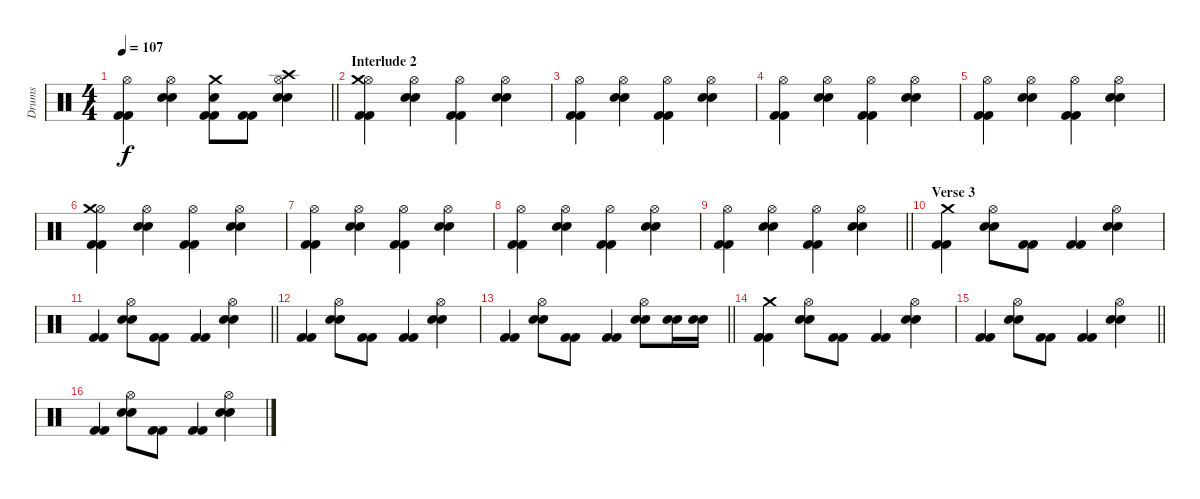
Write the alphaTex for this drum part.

\track ("Drums" "Drums") {instrument percussion}
\staff {score}
\articulation defaults
\ts (4 4)
\tempo 107
\clef neutral
\barLineRight lightlight
\ks c
("Kick (hit) 2" "Kick (hit) 2" "Hi-Hat (open)").4{dy f} ("Snare (hit) 2" "Snare (hit) 2" "Hi-Hat (open)").4 ("Kick (hit) 2" "Kick (hit) 2" "Crash medium (hit)" "Snare (hit) 2").8 ("Kick (hit) 2" "Kick (hit) 2").8 ("Snare (hit) 2" "Snare (hit) 2" "Hi-Hat (open)" "Crash high (hit)").4 |
\section ("" "Interlude 2")
("Kick (hit) 2" "Kick (hit) 2" "Hi-Hat (open)" "Crash medium (hit)").4 ("Snare (hit) 2" "Snare (hit) 2" "Hi-Hat (open)").4 ("Kick (hit) 2" "Kick (hit) 2" "Hi-Hat (open)").4 ("Snare (hit) 2" "Snare (hit) 2" "Hi-Hat (open)").4 |
("Kick (hit) 2" "Kick (hit) 2" "Hi-Hat (open)").4 ("Snare (hit) 2" "Snare (hit) 2" "Hi-Hat (open)").4 ("Kick (hit) 2" "Kick (hit) 2" "Hi-Hat (open)").4 ("Snare (hit) 2" "Snare (hit) 2" "Hi-Hat (open)").4 |
("Kick (hit) 2" "Kick (hit) 2" "Hi-Hat (open)").4 ("Snare (hit) 2" "Snare (hit) 2" "Hi-Hat (open)").4 ("Kick (hit) 2" "Kick (hit) 2" "Hi-Hat (open)").4 ("Snare (hit) 2" "Snare (hit) 2" "Hi-Hat (open)").4 |
("Kick (hit) 2" "Kick (hit) 2" "Hi-Hat (open)").4 ("Snare (hit) 2" "Snare (hit) 2" "Hi-Hat (open)").4 ("Kick (hit) 2" "Kick (hit) 2" "Hi-Hat (open)").4 ("Snare (hit) 2" "Snare (hit) 2" "Hi-Hat (open)").4 |
("Kick (hit) 2" "Kick (hit) 2" "Hi-Hat (open)" "Crash medium (hit)").4 ("Snare (hit) 2" "Snare (hit) 2" "Hi-Hat (open)").4 ("Kick (hit) 2" "Kick (hit) 2" "Hi-Hat (open)").4 ("Snare (hit) 2" "Snare (hit) 2" "Hi-Hat (open)").4 |
("Kick (hit) 2" "Kick (hit) 2" "Hi-Hat (open)").4 ("Snare (hit) 2" "Snare (hit) 2" "Hi-Hat (open)").4 ("Kick (hit) 2" "Kick (hit) 2" "Hi-Hat (open)").4 ("Snare (hit) 2" "Snare (hit) 2" "Hi-Hat (open)").4 |
("Kick (hit) 2" "Kick (hit) 2" "Hi-Hat (open)").4 ("Snare (hit) 2" "Snare (hit) 2" "Hi-Hat (open)").4 ("Kick (hit) 2" "Kick (hit) 2" "Hi-Hat (open)").4 ("Snare (hit) 2" "Snare (hit) 2" "Hi-Hat (open)").4 |
\barLineRight lightlight
("Kick (hit) 2" "Kick (hit) 2" "Hi-Hat (open)").4 ("Snare (hit) 2" "Snare (hit) 2" "Hi-Hat (open)").4 ("Kick (hit) 2" "Kick (hit) 2" "Hi-Hat (open)").4 ("Snare (hit) 2" "Snare (hit) 2" "Hi-Hat (open)").4 |
\section ("" "Verse 3")
("Kick (hit) 2" "Kick (hit) 2" "Crash medium (hit)").4 ("Snare (hit) 2" "Snare (hit) 2" "Hi-Hat (open)").8 ("Kick (hit) 2" "Kick (hit) 2").8 ("Kick (hit) 2" "Kick (hit) 2").4 ("Snare (hit) 2" "Snare (hit) 2" "Hi-Hat (open)").4 |
\barLineRight lightlight
("Kick (hit) 2" "Kick (hit) 2").4 ("Snare (hit) 2" "Snare (hit) 2" "Hi-Hat (open)").8 ("Kick (hit) 2" "Kick (hit) 2").8 ("Kick (hit) 2" "Kick (hit) 2").4 ("Snare (hit) 2" "Snare (hit) 2" "Hi-Hat (open)").4 |
("Kick (hit) 2" "Kick (hit) 2").4 ("Snare (hit) 2" "Snare (hit) 2" "Hi-Hat (open)").8 ("Kick (hit) 2" "Kick (hit) 2").8 ("Kick (hit) 2" "Kick (hit) 2").4 ("Snare (hit) 2" "Snare (hit) 2" "Hi-Hat (open)").4 |
\barLineRight lightlight
("Kick (hit) 2" "Kick (hit) 2").4 ("Snare (hit) 2" "Snare (hit) 2" "Hi-Hat (open)").8 ("Kick (hit) 2" "Kick (hit) 2").8 ("Kick (hit) 2" "Kick (hit) 2").4 ("Snare (hit) 2" "Snare (hit) 2" "Hi-Hat (open)").8 ("Snare (hit) 2" "Snare (hit) 2").16 ("Snare (hit) 2" "Snare (hit) 2").16 |
("Kick (hit) 2" "Kick (hit) 2" "Crash medium (hit)").4 ("Snare (hit) 2" "Snare (hit) 2" "Hi-Hat (open)").8 ("Kick (hit) 2" "Kick (hit) 2").8 ("Kick (hit) 2" "Kick (hit) 2").4 ("Snare (hit) 2" "Snare (hit) 2" "Hi-Hat (open)").4 |
\barLineRight lightlight
("Kick (hit) 2" "Kick (hit) 2").4 ("Snare (hit) 2" "Snare (hit) 2" "Hi-Hat (open)").8 ("Kick (hit) 2" "Kick (hit) 2").8 ("Kick (hit) 2" "Kick (hit) 2").4 ("Snare (hit) 2" "Snare (hit) 2" "Hi-Hat (open)").4 |
("Kick (hit) 2" "Kick (hit) 2").4 ("Snare (hit) 2" "Snare (hit) 2" "Hi-Hat (open)").8 ("Kick (hit) 2" "Kick (hit) 2").8 ("Kick (hit) 2" "Kick (hit) 2").4 ("Snare (hit) 2" "Snare (hit) 2" "Hi-Hat (open)").4
